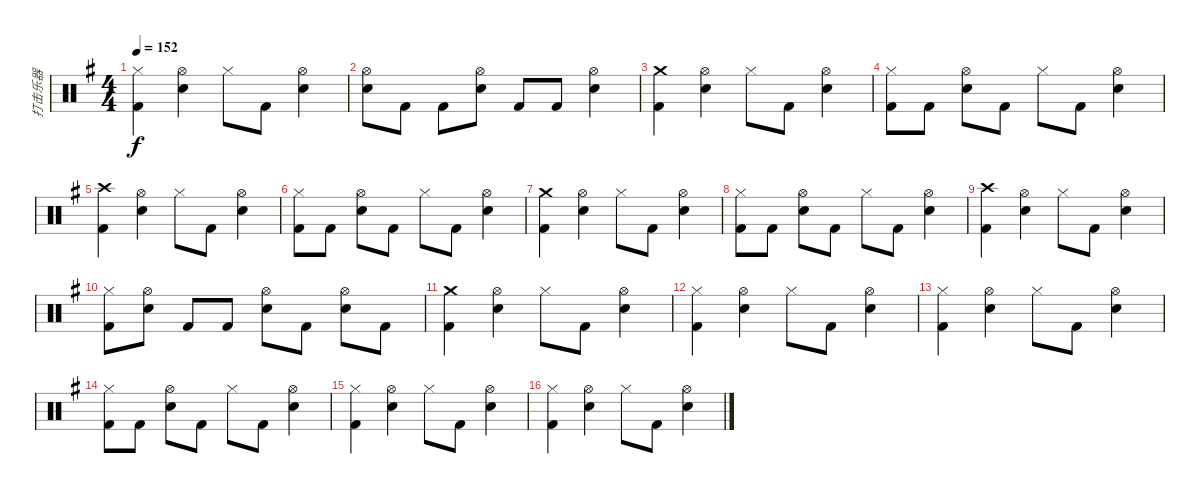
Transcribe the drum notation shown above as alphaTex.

\track ("打击乐器" "打击乐器") {instrument percussion}
\staff {score}
\articulation defaults
\ts (4 4)
\tempo 152
\clef neutral
\ks g
("Hi-Hat (closed)" "Kick (hit) 2").4{dy f} ("Hi-Hat (open)" "Metronome (bell)").4 "Hi-Hat (closed)".8 "Kick (hit) 2".8 ("Hi-Hat (open)" "Metronome (bell)").4 |
("Hi-Hat (open)" "Metronome (bell)").8 "Kick (hit) 2".8 "Kick (hit) 2".8 ("Hi-Hat (open)" "Metronome (bell)").8 "Kick (hit) 2".8 "Kick (hit) 2".8 ("Hi-Hat (open)" "Metronome (bell)").4 |
("Crash medium (hit)" "Kick (hit) 2").4 ("Hi-Hat (open)" "Metronome (bell)").4 "Hi-Hat (closed)".8 "Kick (hit) 2".8 ("Hi-Hat (open)" "Metronome (bell)").4 |
("Hi-Hat (closed)" "Kick (hit) 2").8 "Kick (hit) 2".8 ("Hi-Hat (open)" "Metronome (bell)").8 "Kick (hit) 2".8 "Hi-Hat (closed)".8 "Kick (hit) 2".8 ("Hi-Hat (open)" "Metronome (bell)").4 |
("Crash high (hit)" "Kick (hit) 2").4 ("Hi-Hat (open)" "Metronome (bell)").4 "Hi-Hat (closed)".8 "Kick (hit) 2".8 ("Hi-Hat (open)" "Metronome (bell)").4 |
("Hi-Hat (closed)" "Kick (hit) 2").8 "Kick (hit) 2".8 ("Hi-Hat (open)" "Metronome (bell)").8 "Kick (hit) 2".8 "Hi-Hat (closed)".8 "Kick (hit) 2".8 ("Hi-Hat (open)" "Metronome (bell)").4 |
("Crash medium (hit)" "Kick (hit) 2").4 ("Hi-Hat (open)" "Metronome (bell)").4 "Hi-Hat (closed)".8 "Kick (hit) 2".8 ("Hi-Hat (open)" "Metronome (bell)").4 |
("Hi-Hat (closed)" "Kick (hit) 2").8 "Kick (hit) 2".8 ("Hi-Hat (open)" "Metronome (bell)").8 "Kick (hit) 2".8 "Hi-Hat (closed)".8 "Kick (hit) 2".8 ("Hi-Hat (open)" "Metronome (bell)").4 |
("Crash high (hit)" "Kick (hit) 2").4 ("Hi-Hat (open)" "Metronome (bell)").4 "Hi-Hat (closed)".8 "Kick (hit) 2".8 ("Hi-Hat (open)" "Metronome (bell)").4 |
("Hi-Hat (closed)" "Kick (hit) 2").8 ("Hi-Hat (open)" "Metronome (bell)").8 "Kick (hit) 2".8 "Kick (hit) 2".8 ("Hi-Hat (open)" "Metronome (bell)").8 "Kick (hit) 2".8 ("Hi-Hat (open)" "Metronome (bell)").8 "Kick (hit) 2".8 |
("Crash medium (hit)" "Kick (hit) 2").4 ("Hi-Hat (open)" "Metronome (bell)").4 "Hi-Hat (closed)".8 "Kick (hit) 2".8 ("Hi-Hat (open)" "Metronome (bell)").4 |
("Hi-Hat (closed)" "Kick (hit) 2").4 ("Hi-Hat (open)" "Metronome (bell)").4 "Hi-Hat (closed)".8 "Kick (hit) 2".8 ("Hi-Hat (open)" "Metronome (bell)").4 |
("Hi-Hat (closed)" "Kick (hit) 2").4 ("Hi-Hat (open)" "Metronome (bell)").4 "Hi-Hat (closed)".8 "Kick (hit) 2".8 ("Hi-Hat (open)" "Metronome (bell)").4 |
("Hi-Hat (closed)" "Kick (hit) 2").8 "Kick (hit) 2".8 ("Hi-Hat (open)" "Metronome (bell)").8 "Kick (hit) 2".8 "Hi-Hat (closed)".8 "Kick (hit) 2".8 ("Hi-Hat (open)" "Metronome (bell)").4 |
("Hi-Hat (closed)" "Kick (hit) 2").4 ("Hi-Hat (open)" "Metronome (bell)").4 "Hi-Hat (closed)".8 "Kick (hit) 2".8 ("Hi-Hat (open)" "Metronome (bell)").4 |
("Hi-Hat (closed)" "Kick (hit) 2").4 ("Hi-Hat (open)" "Metronome (bell)").4 "Hi-Hat (closed)".8 "Kick (hit) 2".8 ("Hi-Hat (open)" "Metronome (bell)").4
